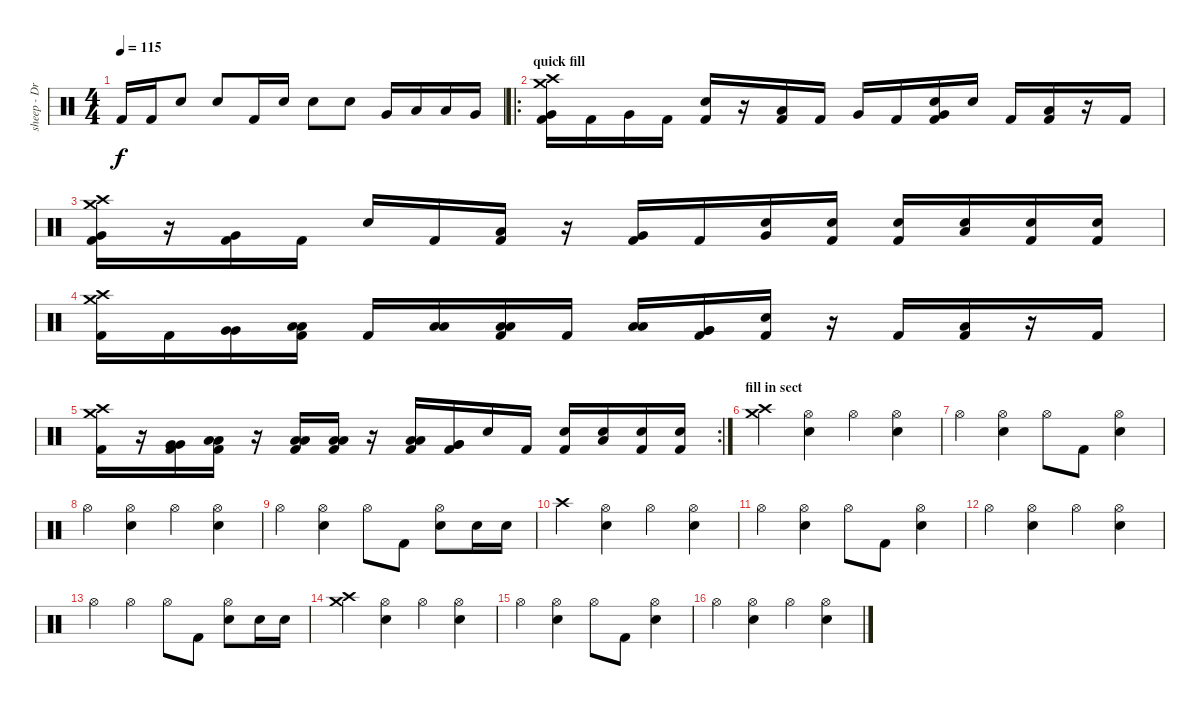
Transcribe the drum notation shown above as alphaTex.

\track ("sheep - Drum track (guide)" "sheep - Dr") {instrument percussion}
\staff {score}
\articulation defaults
\ts (4 4)
\tempo 115
\clef neutral
\ks c "Kick (hit) 2".16{dy f} "Kick (hit) 2".16 "Electric Snare (hit)".8 "Electric Snare (hit)".8 "Kick (hit) 2".16 "Electric Snare (hit)".16 "Electric Snare (hit)".8 "Electric Snare (hit)".8 "Very Low Tom (hit)".16 "Low Tom (hit)".16 "Low Floor Tom (hit)".16 "Very Low Tom (hit)".16
|
\ro
\section ("" "quick fill")
("Crash high (hit)" "Crash medium (hit)" "Very Low Tom (hit)" "Kick (hit) 2").16 "Kick (hit) 2".16 "Very Low Tom (hit)".16 "Kick (hit) 2".16 ("Electric Snare (hit)" "Kick (hit) 2").16 r.16 ("Low Floor Tom (hit)" "Kick (hit) 2").16 "Kick (hit) 2".16 "Very Low Tom (hit)".16 "Kick (hit) 2".16 ("Electric Snare (hit)" "Very Low Tom (hit)" "Kick (hit) 2").16 "Electric Snare (hit)".16 "Kick (hit) 2".16 ("Low Floor Tom (hit)" "Kick (hit) 2").16 r.16 "Kick (hit) 2".16 |
("Crash medium (hit)" "Crash high (hit)" "Very Low Tom (hit)" "Kick (hit) 2").16 r.16 ("Very Low Tom (hit)" "Kick (hit) 2").16 "Kick (hit) 2".16 "Electric Snare (hit)".16 "Kick (hit) 2".16 ("Low Floor Tom (hit)" "Kick (hit) 2").16 r.16 ("Very Low Tom (hit)" "Kick (hit) 2").16 "Kick (hit) 2".16 ("Electric Snare (hit)" "Very Low Tom (hit)").16 ("Electric Snare (hit)" "Kick (hit) 2").16 ("Electric Snare (hit)" "Kick (hit) 2").16 ("Electric Snare (hit)" "Low Floor Tom (hit)").16 ("Electric Snare (hit)" "Kick (hit) 2").16 ("Electric Snare (hit)" "Kick (hit) 2").16 |
("Crash medium (hit)" "Crash high (hit)" "Kick (hit) 2").16 "Kick (hit) 2".16 ("Very Low Tom (hit)" "Very Low Tom (hit)").16 ("Low Tom (hit)" "Low Tom (hit)" "Kick (hit) 2").16 "Kick (hit) 2".16 ("Low Tom (hit)" "Low Tom (hit)").16 ("Low Floor Tom (hit)" "Low Floor Tom (hit)" "Kick (hit) 2").16 "Kick (hit) 2".16 ("Low Tom (hit)" "Low Tom (hit)").16 ("Very Low Tom (hit)" "Very Low Tom (hit)" "Kick (hit) 2").16 ("Electric Snare (hit)" "Kick (hit) 2").16 r.16 "Kick (hit) 2".16 ("Low Floor Tom (hit)" "Kick (hit) 2").16 r.16 "Kick (hit) 2".16 |
\rc 2
("Crash medium (hit)" "Crash high (hit)" "Kick (hit) 2").16 r.16 ("Very Low Tom (hit)" "Very Low Tom (hit)" "Kick (hit) 2").16 ("Low Tom (hit)" "Low Tom (hit)" "Kick (hit) 2").16 r.16 ("Low Tom (hit)" "Low Tom (hit)" "Kick (hit) 2").16 ("Low Floor Tom (hit)" "Low Floor Tom (hit)" "Kick (hit) 2").16 r.16 ("Low Tom (hit)" "Low Tom (hit)" "Kick (hit) 2").16 ("Very Low Tom (hit)" "Very Low Tom (hit)" "Kick (hit) 2").16 "Electric Snare (hit)".16 "Kick (hit) 2".16 ("Electric Snare (hit)" "Kick (hit) 2").16 ("Electric Snare (hit)" "Low Floor Tom (hit)").16 ("Electric Snare (hit)" "Kick (hit) 2").16 ("Electric Snare (hit)" "Kick (hit) 2").16 |
\section ("" "fill in sect")
("Crash medium (hit)" "Crash high (hit)").4 ("Hi-Hat (open)" "Electric Snare (hit)").4 "Hi-Hat (open)".4 ("Hi-Hat (open)" "Electric Snare (hit)").4 |
"Hi-Hat (open)".4 ("Hi-Hat (open)" "Electric Snare (hit)").4 "Hi-Hat (open)".8 "Kick (hit) 2".8 ("Hi-Hat (open)" "Electric Snare (hit)").4 |
"Hi-Hat (open)".4 ("Hi-Hat (open)" "Electric Snare (hit)").4 "Hi-Hat (open)".4 ("Hi-Hat (open)" "Electric Snare (hit)").4 |
"Hi-Hat (open)".4 ("Hi-Hat (open)" "Electric Snare (hit)").4 "Hi-Hat (open)".8 "Kick (hit) 2".8 ("Hi-Hat (open)" "Electric Snare (hit)").8 "Electric Snare (hit)".16 "Electric Snare (hit)".16 |
"Crash high (hit)".4 ("Hi-Hat (open)" "Electric Snare (hit)").4 "Hi-Hat (open)".4 ("Hi-Hat (open)" "Electric Snare (hit)").4 |
"Hi-Hat (open)".4 ("Hi-Hat (open)" "Electric Snare (hit)").4 "Hi-Hat (open)".8 "Kick (hit) 2".8 ("Hi-Hat (open)" "Electric Snare (hit)").4 |
"Hi-Hat (open)".4 ("Hi-Hat (open)" "Electric Snare (hit)").4 "Hi-Hat (open)".4 ("Hi-Hat (open)" "Electric Snare (hit)").4 |
"Hi-Hat (open)".4 "Hi-Hat (open)".4 "Hi-Hat (open)".8 "Kick (hit) 2".8 ("Hi-Hat (open)" "Electric Snare (hit)").8 "Electric Snare (hit)".16 "Electric Snare (hit)".16 |
("Crash medium (hit)" "Crash high (hit)").4 ("Hi-Hat (open)" "Electric Snare (hit)").4 "Hi-Hat (open)".4 ("Hi-Hat (open)" "Electric Snare (hit)").4 |
"Hi-Hat (open)".4 ("Hi-Hat (open)" "Electric Snare (hit)").4 "Hi-Hat (open)".8 "Kick (hit) 2".8 ("Hi-Hat (open)" "Electric Snare (hit)").4 |
"Hi-Hat (open)".4 ("Hi-Hat (open)" "Electric Snare (hit)").4 "Hi-Hat (open)".4 ("Hi-Hat (open)" "Electric Snare (hit)").4
